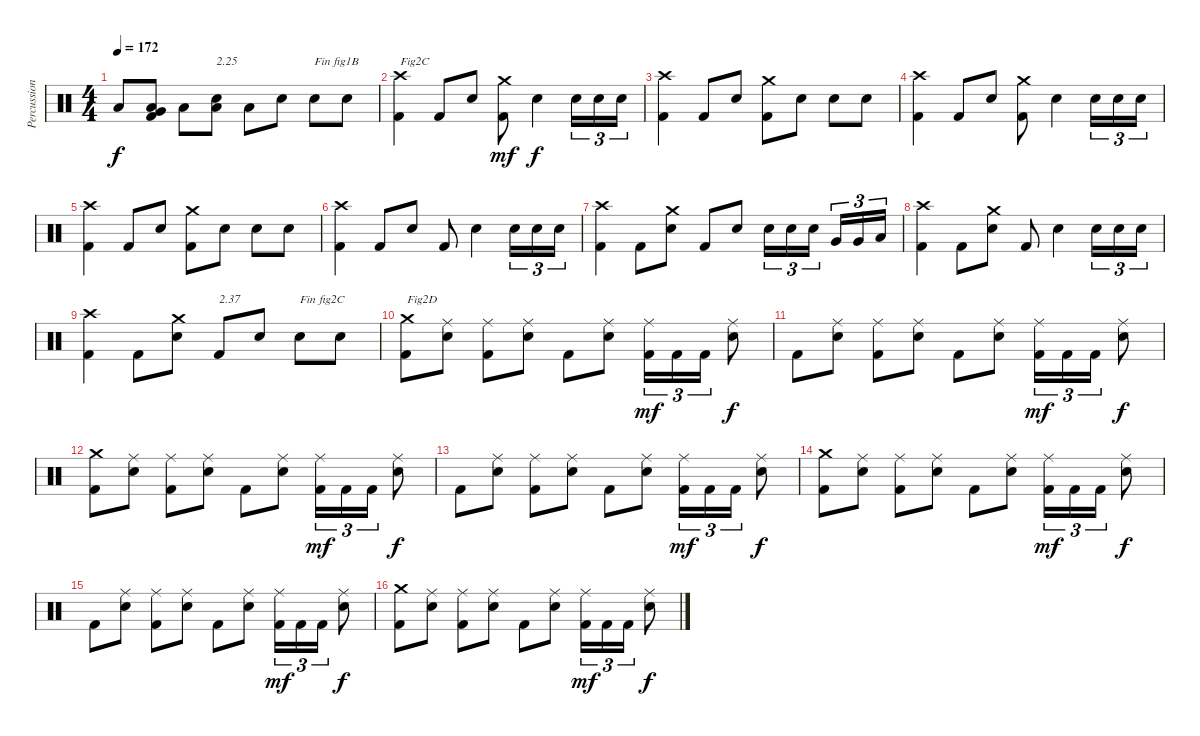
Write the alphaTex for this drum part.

\track ("Percussions" "Percussion") {instrument percussion}
\staff {score}
\articulation defaults
\ts (4 4)
\tempo 172
\clef neutral
\ks c "Low Floor Tom (hit)".8{dy f}
("Kick (hit) 2" "Low Floor Tom (hit)" "Very Low Tom (hit)").8 "Low Floor Tom (hit)".8 ("Electric Snare (hit)" "Low Floor Tom (hit)").8{txt "2.25"} "Low Floor Tom (hit)".8 "Electric Snare (hit)".8 "Electric Snare (hit)".8{txt "Fin fig1B"} "Electric Snare (hit)".8 |
("Kick (hit) 2" "Crash high (hit)").4{txt "Fig2C"} "Kick (hit) 2".8 "Electric Snare (hit)".8 ("Kick (hit) 2" "Crash medium (hit)").8{dy mf} "Electric Snare (hit)".4{dy f} "Electric Snare (hit)".16{tu (3 2)} "Electric Snare (hit)".16{tu (3 2)} "Electric Snare (hit)".16{tu (3 2)} |
("Kick (hit) 2" "Crash high (hit)").4 "Kick (hit) 2".8 "Electric Snare (hit)".8 ("Kick (hit) 2" "Crash medium (hit)").8 "Electric Snare (hit)".8 "Electric Snare (hit)".8 "Electric Snare (hit)".8 |
("Kick (hit) 2" "Crash high (hit)").4 "Kick (hit) 2".8 "Electric Snare (hit)".8 ("Kick (hit) 2" "Crash medium (hit)").8 "Electric Snare (hit)".4 "Electric Snare (hit)".16{tu (3 2)} "Electric Snare (hit)".16{tu (3 2)} "Electric Snare (hit)".16{tu (3 2)} |
("Kick (hit) 2" "Crash high (hit)").4 "Kick (hit) 2".8 "Electric Snare (hit)".8 ("Kick (hit) 2" "Crash medium (hit)").8 "Electric Snare (hit)".8 "Electric Snare (hit)".8 "Electric Snare (hit)".8 |
("Kick (hit) 2" "Crash high (hit)").4 "Kick (hit) 2".8 "Electric Snare (hit)".8 "Kick (hit) 2".8 "Electric Snare (hit)".4 "Electric Snare (hit)".16{tu (3 2)} "Electric Snare (hit)".16{tu (3 2)} "Electric Snare (hit)".16{tu (3 2)} |
("Kick (hit) 2" "Crash high (hit)").4 "Kick (hit) 2".8 ("Electric Snare (hit)" "Crash medium (hit)").8 "Kick (hit) 2".8 "Electric Snare (hit)".8 "Electric Snare (hit)".16{tu (3 2)} "Electric Snare (hit)".16{tu (3 2)} "Electric Snare (hit)".16{tu (3 2)} "Very Low Tom (hit)".16{tu (3 2)} "Very Low Tom (hit)".16{tu (3 2)} "Low Floor Tom (hit)".16{tu (3 2)} |
("Kick (hit) 2" "Crash high (hit)").4 "Kick (hit) 2".8 ("Electric Snare (hit)" "Crash medium (hit)").8 "Kick (hit) 2".8 "Electric Snare (hit)".4 "Electric Snare (hit)".16{tu (3 2)} "Electric Snare (hit)".16{tu (3 2)} "Electric Snare (hit)".16{tu (3 2)} |
("Kick (hit) 2" "Crash high (hit)").4 "Kick (hit) 2".8 ("Electric Snare (hit)" "Crash medium (hit)").8 "Kick (hit) 2".8{txt "2.37"} "Electric Snare (hit)".8 "Electric Snare (hit)".8{txt "Fin fig2C"} "Electric Snare (hit)".8 |
("Kick (hit) 2" "Crash medium (hit)").8{txt "Fig2D"} ("Electric Snare (hit)" "Ride (middle)").8 ("Kick (hit) 2" "Ride (middle)").8 ("Electric Snare (hit)" "Ride (middle)").8 "Kick (hit) 2".8 ("Electric Snare (hit)" "Ride (middle)").8 ("Kick (hit) 2" "Ride (middle)").16{tu (3 2) dy mf} "Kick (hit) 2".16{tu (3 2)} "Kick (hit) 2".16{tu (3 2)} ("Electric Snare (hit)" "Ride (middle)").8{dy f} |
"Kick (hit) 2".8 ("Electric Snare (hit)" "Ride (middle)").8 ("Kick (hit) 2" "Ride (middle)").8 ("Electric Snare (hit)" "Ride (middle)").8 "Kick (hit) 2".8 ("Electric Snare (hit)" "Ride (middle)").8 ("Kick (hit) 2" "Ride (middle)").16{tu (3 2) dy mf} "Kick (hit) 2".16{tu (3 2)} "Kick (hit) 2".16{tu (3 2)} ("Electric Snare (hit)" "Ride (middle)").8{dy f} |
("Kick (hit) 2" "Crash medium (hit)").8 ("Electric Snare (hit)" "Ride (middle)").8 ("Kick (hit) 2" "Ride (middle)").8 ("Electric Snare (hit)" "Ride (middle)").8 "Kick (hit) 2".8 ("Electric Snare (hit)" "Ride (middle)").8 ("Kick (hit) 2" "Ride (middle)").16{tu (3 2) dy mf} "Kick (hit) 2".16{tu (3 2)} "Kick (hit) 2".16{tu (3 2)} ("Electric Snare (hit)" "Ride (middle)").8{dy f} |
"Kick (hit) 2".8 ("Electric Snare (hit)" "Ride (middle)").8 ("Kick (hit) 2" "Ride (middle)").8 ("Electric Snare (hit)" "Ride (middle)").8 "Kick (hit) 2".8 ("Electric Snare (hit)" "Ride (middle)").8 ("Kick (hit) 2" "Ride (middle)").16{tu (3 2) dy mf} "Kick (hit) 2".16{tu (3 2)} "Kick (hit) 2".16{tu (3 2)} ("Electric Snare (hit)" "Ride (middle)").8{dy f} |
("Kick (hit) 2" "Crash medium (hit)").8 ("Electric Snare (hit)" "Ride (middle)").8 ("Kick (hit) 2" "Ride (middle)").8 ("Electric Snare (hit)" "Ride (middle)").8 "Kick (hit) 2".8 ("Electric Snare (hit)" "Ride (middle)").8 ("Kick (hit) 2" "Ride (middle)").16{tu (3 2) dy mf} "Kick (hit) 2".16{tu (3 2)} "Kick (hit) 2".16{tu (3 2)} ("Electric Snare (hit)" "Ride (middle)").8{dy f} |
"Kick (hit) 2".8 ("Electric Snare (hit)" "Ride (middle)").8 ("Kick (hit) 2" "Ride (middle)").8 ("Electric Snare (hit)" "Ride (middle)").8 "Kick (hit) 2".8 ("Electric Snare (hit)" "Ride (middle)").8 ("Kick (hit) 2" "Ride (middle)").16{tu (3 2) dy mf} "Kick (hit) 2".16{tu (3 2)} "Kick (hit) 2".16{tu (3 2)} ("Electric Snare (hit)" "Ride (middle)").8{dy f} |
("Kick (hit) 2" "Crash medium (hit)").8 ("Electric Snare (hit)" "Ride (middle)").8 ("Kick (hit) 2" "Ride (middle)").8 ("Electric Snare (hit)" "Ride (middle)").8 "Kick (hit) 2".8 ("Electric Snare (hit)" "Ride (middle)").8 ("Kick (hit) 2" "Ride (middle)").16{tu (3 2) dy mf} "Kick (hit) 2".16{tu (3 2)} "Kick (hit) 2".16{tu (3 2)} ("Electric Snare (hit)" "Ride (middle)").8{dy f}
